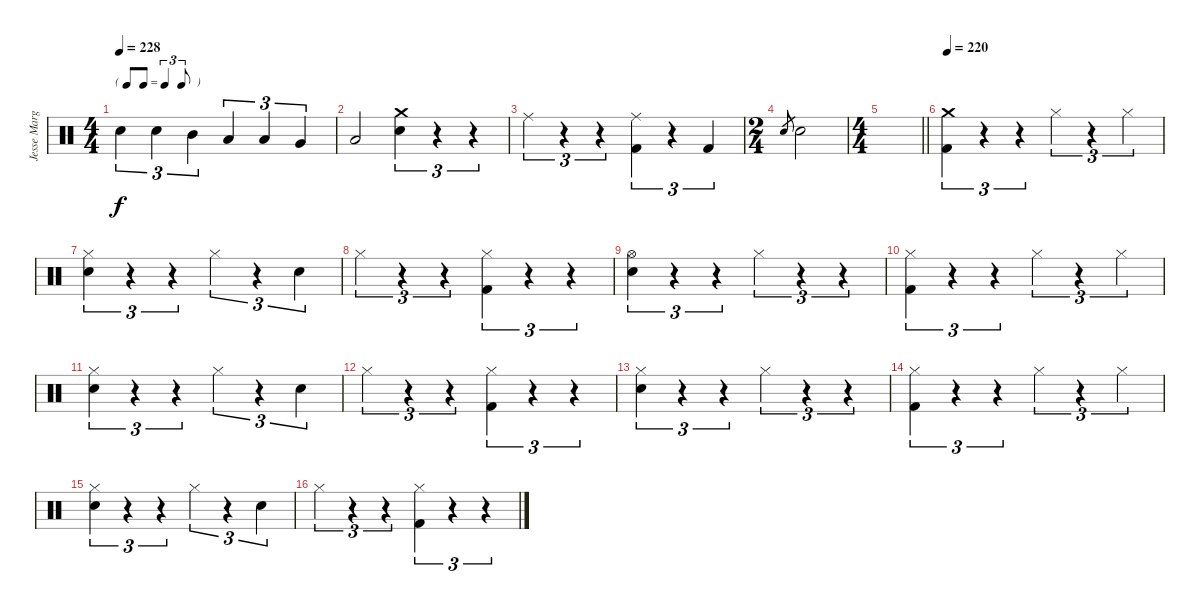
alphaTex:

\track ("Jesse Margera" "Jesse Marg") {instrument percussion}
\staff {score}
\articulation defaults
\ts (4 4)
\tf triplet8th
\tempo 228
\clef neutral
\ks c "Electric Snare (hit)".4{tu (3 2) dy f} "Electric Snare (hit)".4{tu (3 2)} "Mid Tom (hit)".4{tu (3 2)} "Low Tom (hit)".4{tu (3 2)} "Low Tom (hit)".4{tu (3 2)} "Very Low Tom (hit)".4{tu (3 2)}
|
"Low Floor Tom (hit)".2 ("Crash medium (hit)" "Electric Snare (hit)").4{tu (3 2)} r.4{tu (3 2)} r.4{tu (3 2)} |
"Ride (middle)".4{tu (3 2)} r.4{tu (3 2)} r.4{tu (3 2)} ("Ride (middle)" "Kick (hit) 2").4{tu (3 2)} r.4{tu (3 2)} "Kick (hit) 2".4{tu (3 2)} |
\ts (2 4)
"Electric Snare (hit)".8{gr} "Electric Snare (hit)".2 |
\ts (4 4)
\barLineRight lightlight
|
\section ("" "")
\tempo 220
("Crash medium (hit)" "Kick (hit) 2").4{tu (3 2)} r.4{tu (3 2)} r.4{tu (3 2)} "Hi-Hat (closed)".4{tu (3 2)} r.4{tu (3 2)} "Hi-Hat (closed)".4{tu (3 2)} |
("Hi-Hat (closed)" "Electric Snare (hit)").4{tu (3 2)} r.4{tu (3 2)} r.4{tu (3 2)} "Hi-Hat (closed)".4{tu (3 2)} r.4{tu (3 2)} "Electric Snare (hit)".4{tu (3 2)} |
"Hi-Hat (closed)".4{tu (3 2)} r.4{tu (3 2)} r.4{tu (3 2)} ("Hi-Hat (closed)" "Kick (hit) 2").4{tu (3 2)} r.4{tu (3 2)} r.4{tu (3 2)} |
("Hi-Hat (open)" "Electric Snare (hit)").4{tu (3 2)} r.4{tu (3 2)} r.4{tu (3 2)} "Hi-Hat (closed)".4{tu (3 2)} r.4{tu (3 2)} r.4{tu (3 2)} |
("Hi-Hat (closed)" "Kick (hit) 2").4{tu (3 2)} r.4{tu (3 2)} r.4{tu (3 2)} "Hi-Hat (closed)".4{tu (3 2)} r.4{tu (3 2)} "Hi-Hat (closed)".4{tu (3 2)} |
("Hi-Hat (closed)" "Electric Snare (hit)").4{tu (3 2)} r.4{tu (3 2)} r.4{tu (3 2)} "Hi-Hat (closed)".4{tu (3 2)} r.4{tu (3 2)} "Electric Snare (hit)".4{tu (3 2)} |
"Hi-Hat (closed)".4{tu (3 2)} r.4{tu (3 2)} r.4{tu (3 2)} ("Hi-Hat (closed)" "Kick (hit) 2").4{tu (3 2)} r.4{tu (3 2)} r.4{tu (3 2)} |
("Hi-Hat (closed)" "Electric Snare (hit)").4{tu (3 2)} r.4{tu (3 2)} r.4{tu (3 2)} "Hi-Hat (closed)".4{tu (3 2)} r.4{tu (3 2)} r.4{tu (3 2)} |
("Hi-Hat (closed)" "Kick (hit) 2").4{tu (3 2)} r.4{tu (3 2)} r.4{tu (3 2)} "Hi-Hat (closed)".4{tu (3 2)} r.4{tu (3 2)} "Hi-Hat (closed)".4{tu (3 2)} |
("Hi-Hat (closed)" "Electric Snare (hit)").4{tu (3 2)} r.4{tu (3 2)} r.4{tu (3 2)} "Hi-Hat (closed)".4{tu (3 2)} r.4{tu (3 2)} "Electric Snare (hit)".4{tu (3 2)} |
"Hi-Hat (closed)".4{tu (3 2)} r.4{tu (3 2)} r.4{tu (3 2)} ("Hi-Hat (closed)" "Kick (hit) 2").4{tu (3 2)} r.4{tu (3 2)} r.4{tu (3 2)}
